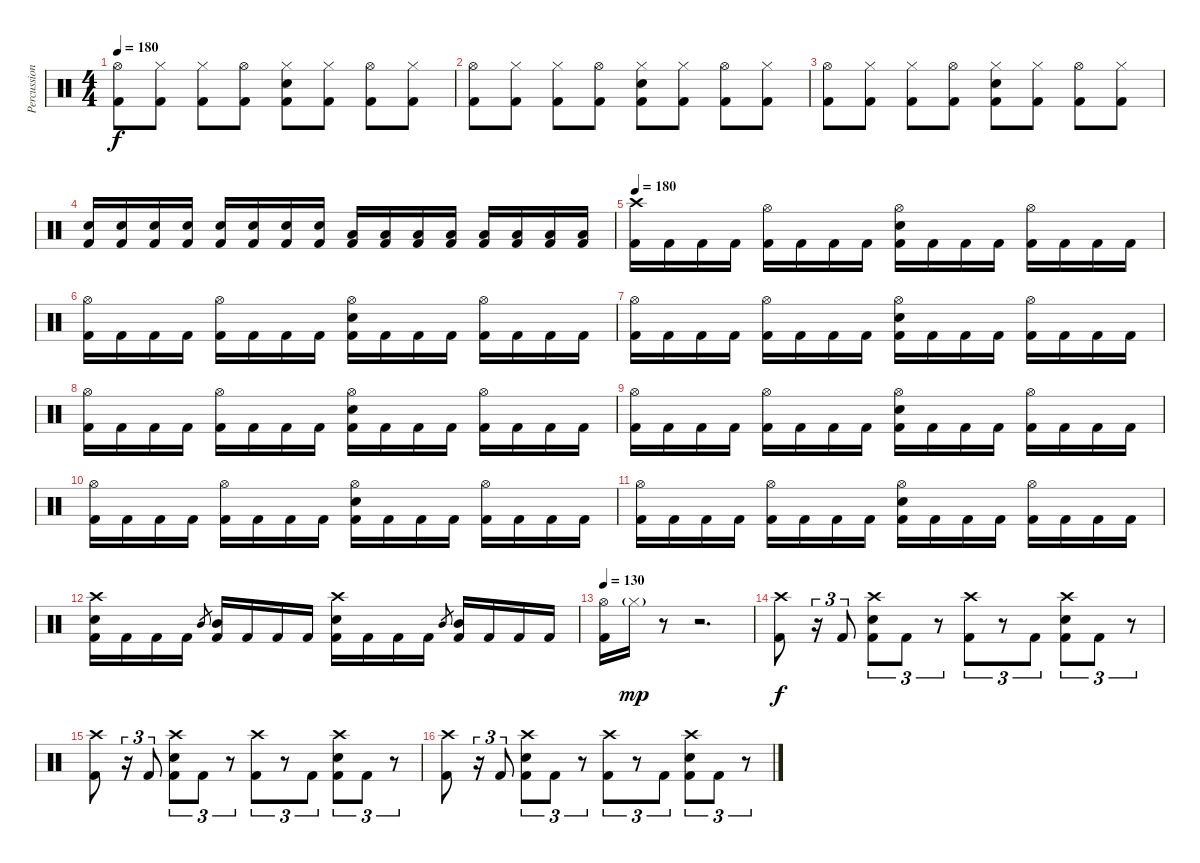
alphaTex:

\track ("Percussion" "Percussion") {instrument percussion}
\staff {score}
\articulation defaults
\ts (4 4)
\tempo 180
\clef neutral
\ks c
("Hi-Hat (open)" "Kick (hit) 2").8{dy f} ("Hi-Hat (closed)" "Kick (hit) 2").8 ("Hi-Hat (closed)" "Kick (hit) 2").8 ("Hi-Hat (open)" "Kick (hit) 2").8 ("Hi-Hat (closed)" "Electric Snare (hit)" "Kick (hit) 2").8 ("Hi-Hat (closed)" "Kick (hit) 2").8 ("Hi-Hat (open)" "Kick (hit) 2").8 ("Hi-Hat (closed)" "Kick (hit) 2").8 |
("Hi-Hat (open)" "Kick (hit) 2").8 ("Hi-Hat (closed)" "Kick (hit) 2").8 ("Hi-Hat (closed)" "Kick (hit) 2").8 ("Hi-Hat (open)" "Kick (hit) 2").8 ("Hi-Hat (closed)" "Electric Snare (hit)" "Kick (hit) 2").8 ("Hi-Hat (closed)" "Kick (hit) 2").8 ("Hi-Hat (open)" "Kick (hit) 2").8 ("Hi-Hat (closed)" "Kick (hit) 2").8 |
("Hi-Hat (open)" "Kick (hit) 2").8 ("Hi-Hat (closed)" "Kick (hit) 2").8 ("Hi-Hat (closed)" "Kick (hit) 2").8 ("Hi-Hat (open)" "Kick (hit) 2").8 ("Hi-Hat (closed)" "Electric Snare (hit)" "Kick (hit) 2").8 ("Hi-Hat (closed)" "Kick (hit) 2").8 ("Hi-Hat (open)" "Kick (hit) 2").8 ("Hi-Hat (closed)" "Kick (hit) 2").8 |
("Electric Snare (hit)" "Kick (hit) 2").16 ("Electric Snare (hit)" "Kick (hit) 2").16 ("Electric Snare (hit)" "Kick (hit) 2").16 ("Electric Snare (hit)" "Kick (hit) 2").16 ("Electric Snare (hit)" "Kick (hit) 2").16 ("Electric Snare (hit)" "Kick (hit) 2").16 ("Electric Snare (hit)" "Kick (hit) 2").16 ("Electric Snare (hit)" "Kick (hit) 2").16 ("Low Tom (hit)" "Kick (hit) 2").16 ("Low Tom (hit)" "Kick (hit) 2").16 ("Low Tom (hit)" "Kick (hit) 2").16 ("Low Tom (hit)" "Kick (hit) 2").16 ("Low Tom (hit)" "Kick (hit) 2").16 ("Low Tom (hit)" "Kick (hit) 2").16 ("Low Tom (hit)" "Kick (hit) 2").16 ("Low Tom (hit)" "Kick (hit) 2").16 |
\tempo 180
("Crash high (hit)" "Kick (hit) 2").16 "Kick (hit) 2".16 "Kick (hit) 2".16 "Kick (hit) 2".16 ("Hi-Hat (open)" "Kick (hit) 2").16 "Kick (hit) 2".16 "Kick (hit) 2".16 "Kick (hit) 2".16 ("Hi-Hat (open)" "Electric Snare (hit)" "Kick (hit) 2").16 "Kick (hit) 2".16 "Kick (hit) 2".16 "Kick (hit) 2".16 ("Hi-Hat (open)" "Kick (hit) 2").16 "Kick (hit) 2".16 "Kick (hit) 2".16 "Kick (hit) 2".16 |
("Hi-Hat (open)" "Kick (hit) 2").16 "Kick (hit) 2".16 "Kick (hit) 2".16 "Kick (hit) 2".16 ("Hi-Hat (open)" "Kick (hit) 2").16 "Kick (hit) 2".16 "Kick (hit) 2".16 "Kick (hit) 2".16 ("Hi-Hat (open)" "Electric Snare (hit)" "Kick (hit) 2").16 "Kick (hit) 2".16 "Kick (hit) 2".16 "Kick (hit) 2".16 ("Hi-Hat (open)" "Kick (hit) 2").16 "Kick (hit) 2".16 "Kick (hit) 2".16 "Kick (hit) 2".16 |
("Hi-Hat (open)" "Kick (hit) 2").16 "Kick (hit) 2".16 "Kick (hit) 2".16 "Kick (hit) 2".16 ("Hi-Hat (open)" "Kick (hit) 2").16 "Kick (hit) 2".16 "Kick (hit) 2".16 "Kick (hit) 2".16 ("Hi-Hat (open)" "Electric Snare (hit)" "Kick (hit) 2").16 "Kick (hit) 2".16 "Kick (hit) 2".16 "Kick (hit) 2".16 ("Hi-Hat (open)" "Kick (hit) 2").16 "Kick (hit) 2".16 "Kick (hit) 2".16 "Kick (hit) 2".16 |
("Hi-Hat (open)" "Kick (hit) 2").16 "Kick (hit) 2".16 "Kick (hit) 2".16 "Kick (hit) 2".16 ("Hi-Hat (open)" "Kick (hit) 2").16 "Kick (hit) 2".16 "Kick (hit) 2".16 "Kick (hit) 2".16 ("Hi-Hat (open)" "Electric Snare (hit)" "Kick (hit) 2").16 "Kick (hit) 2".16 "Kick (hit) 2".16 "Kick (hit) 2".16 ("Hi-Hat (open)" "Kick (hit) 2").16 "Kick (hit) 2".16 "Kick (hit) 2".16 "Kick (hit) 2".16 |
("Hi-Hat (open)" "Kick (hit) 2").16 "Kick (hit) 2".16 "Kick (hit) 2".16 "Kick (hit) 2".16 ("Hi-Hat (open)" "Kick (hit) 2").16 "Kick (hit) 2".16 "Kick (hit) 2".16 "Kick (hit) 2".16 ("Hi-Hat (open)" "Electric Snare (hit)" "Kick (hit) 2").16 "Kick (hit) 2".16 "Kick (hit) 2".16 "Kick (hit) 2".16 ("Hi-Hat (open)" "Kick (hit) 2").16 "Kick (hit) 2".16 "Kick (hit) 2".16 "Kick (hit) 2".16 |
("Hi-Hat (open)" "Kick (hit) 2").16 "Kick (hit) 2".16 "Kick (hit) 2".16 "Kick (hit) 2".16 ("Hi-Hat (open)" "Kick (hit) 2").16 "Kick (hit) 2".16 "Kick (hit) 2".16 "Kick (hit) 2".16 ("Hi-Hat (open)" "Electric Snare (hit)" "Kick (hit) 2").16 "Kick (hit) 2".16 "Kick (hit) 2".16 "Kick (hit) 2".16 ("Hi-Hat (open)" "Kick (hit) 2").16 "Kick (hit) 2".16 "Kick (hit) 2".16 "Kick (hit) 2".16 |
("Hi-Hat (open)" "Kick (hit) 2").16 "Kick (hit) 2".16 "Kick (hit) 2".16 "Kick (hit) 2".16 ("Hi-Hat (open)" "Kick (hit) 2").16 "Kick (hit) 2".16 "Kick (hit) 2".16 "Kick (hit) 2".16 ("Hi-Hat (open)" "Electric Snare (hit)" "Kick (hit) 2").16 "Kick (hit) 2".16 "Kick (hit) 2".16 "Kick (hit) 2".16 ("Hi-Hat (open)" "Kick (hit) 2").16 "Kick (hit) 2".16 "Kick (hit) 2".16 "Kick (hit) 2".16 |
("Crash high (hit)" "Electric Snare (hit)" "Kick (hit) 2").16 "Kick (hit) 2".16 "Kick (hit) 2".16 "Kick (hit) 2".16 "Mid Tom (hit)".8{gr} ("Mid Tom (hit)" "Kick (hit) 2").16 "Kick (hit) 2".16 "Kick (hit) 2".16 "Kick (hit) 2".16 ("Crash high (hit)" "Electric Snare (hit)" "Kick (hit) 2").16 "Kick (hit) 2".16 "Kick (hit) 2".16 "Kick (hit) 2".16 "Mid Tom (hit)".8{gr} ("Mid Tom (hit)" "Kick (hit) 2").16 "Kick (hit) 2".16 "Kick (hit) 2".16 "Kick (hit) 2".16 |
\tempo 130
("Hi-Hat (open)" "Kick (hit) 2").16 "Hi-Hat (closed)"{g}.16{dy mp} r.8 r.2{d} |
("Crash high (hit)" "Kick (hit) 2").8{dy f} r.16{tu (3 2)} "Kick (hit) 2".8{tu (3 2)} ("Crash high (hit)" "Electric Snare (hit)" "Kick (hit) 2").8{tu (3 2)} "Kick (hit) 2".8{tu (3 2)} r.8{tu (3 2)} ("Crash high (hit)" "Kick (hit) 2").8{tu (3 2)} r.8{tu (3 2)} "Kick (hit) 2".8{tu (3 2)} ("Crash high (hit)" "Electric Snare (hit)" "Kick (hit) 2").8{tu (3 2)} "Kick (hit) 2".8{tu (3 2)} r.8{tu (3 2)} |
("Crash high (hit)" "Kick (hit) 2").8 r.16{tu (3 2)} "Kick (hit) 2".8{tu (3 2)} ("Crash high (hit)" "Electric Snare (hit)" "Kick (hit) 2").8{tu (3 2)} "Kick (hit) 2".8{tu (3 2)} r.8{tu (3 2)} ("Crash high (hit)" "Kick (hit) 2").8{tu (3 2)} r.8{tu (3 2)} "Kick (hit) 2".8{tu (3 2)} ("Crash high (hit)" "Electric Snare (hit)" "Kick (hit) 2").8{tu (3 2)} "Kick (hit) 2".8{tu (3 2)} r.8{tu (3 2)} |
("Crash high (hit)" "Kick (hit) 2").8 r.16{tu (3 2)} "Kick (hit) 2".8{tu (3 2)} ("Crash high (hit)" "Electric Snare (hit)" "Kick (hit) 2").8{tu (3 2)} "Kick (hit) 2".8{tu (3 2)} r.8{tu (3 2)} ("Crash high (hit)" "Kick (hit) 2").8{tu (3 2)} r.8{tu (3 2)} "Kick (hit) 2".8{tu (3 2)} ("Crash high (hit)" "Electric Snare (hit)" "Kick (hit) 2").8{tu (3 2)} "Kick (hit) 2".8{tu (3 2)} r.8{tu (3 2)}
